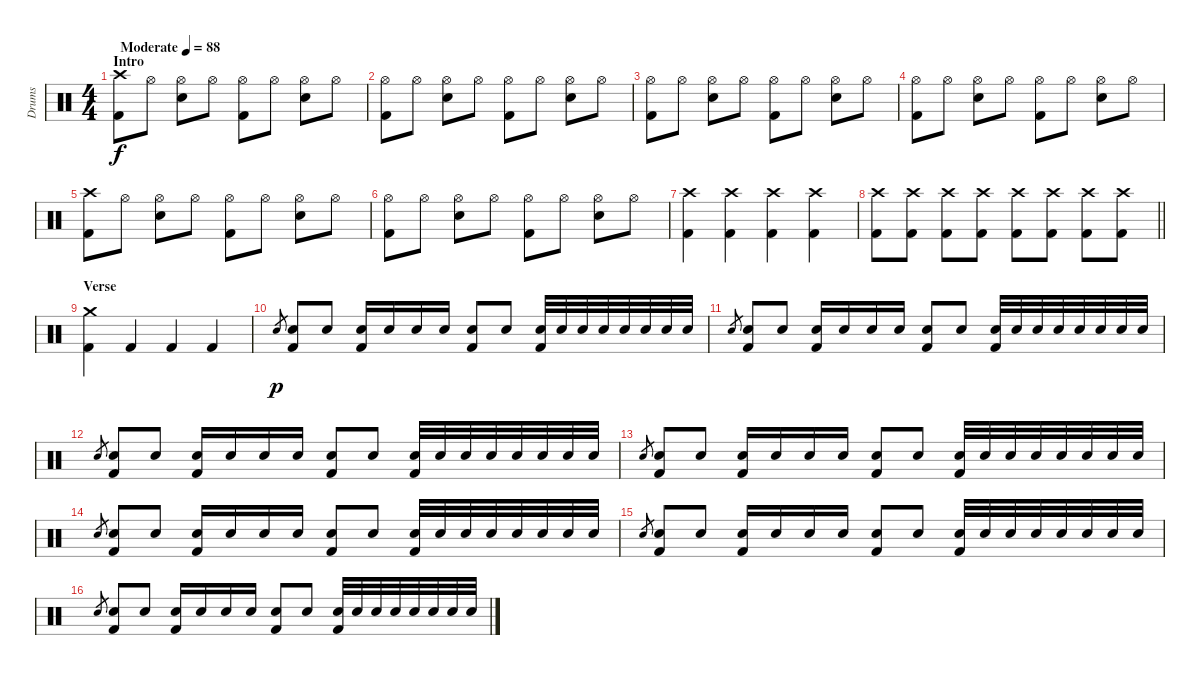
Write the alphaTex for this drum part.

\track ("Drums" "Drums") {instrument percussion}
\staff {score}
\articulation defaults
\ts (4 4)
\section ("" "Intro")
\tempo (88 "Moderate")
\clef neutral
\ks c
("Crash high (hit)" "Kick (hit) 2").8{dy f} "Hi-Hat (open)".8 ("Hi-Hat (open)" "Snare (hit) 2").8 "Hi-Hat (open)".8 ("Hi-Hat (open)" "Kick (hit) 2").8 "Hi-Hat (open)".8 ("Hi-Hat (open)" "Snare (hit) 2").8 "Hi-Hat (open)".8 |
("Hi-Hat (open)" "Kick (hit) 2").8 "Hi-Hat (open)".8 ("Hi-Hat (open)" "Snare (hit) 2").8 "Hi-Hat (open)".8 ("Hi-Hat (open)" "Kick (hit) 2").8 "Hi-Hat (open)".8 ("Hi-Hat (open)" "Snare (hit) 2").8 "Hi-Hat (open)".8 |
("Hi-Hat (open)" "Kick (hit) 2").8 "Hi-Hat (open)".8 ("Hi-Hat (open)" "Snare (hit) 2").8 "Hi-Hat (open)".8 ("Hi-Hat (open)" "Kick (hit) 2").8 "Hi-Hat (open)".8 ("Hi-Hat (open)" "Snare (hit) 2").8 "Hi-Hat (open)".8 |
("Hi-Hat (open)" "Kick (hit) 2").8 "Hi-Hat (open)".8 ("Hi-Hat (open)" "Snare (hit) 2").8 "Hi-Hat (open)".8 ("Hi-Hat (open)" "Kick (hit) 2").8 "Hi-Hat (open)".8 ("Hi-Hat (open)" "Snare (hit) 2").8 "Hi-Hat (open)".8 |
("Crash high (hit)" "Kick (hit) 2").8 "Hi-Hat (open)".8 ("Hi-Hat (open)" "Snare (hit) 2").8 "Hi-Hat (open)".8 ("Hi-Hat (open)" "Kick (hit) 2").8 "Hi-Hat (open)".8 ("Hi-Hat (open)" "Snare (hit) 2").8 "Hi-Hat (open)".8 |
("Hi-Hat (open)" "Kick (hit) 2").8 "Hi-Hat (open)".8 ("Hi-Hat (open)" "Snare (hit) 2").8 "Hi-Hat (open)".8 ("Hi-Hat (open)" "Kick (hit) 2").8 "Hi-Hat (open)".8 ("Hi-Hat (open)" "Snare (hit) 2").8 "Hi-Hat (open)".8 |
("Crash high (hit)" "Kick (hit) 2").4 ("Crash high (hit)" "Kick (hit) 2").4 ("Crash high (hit)" "Kick (hit) 2").4 ("Crash high (hit)" "Kick (hit) 2").4 |
\barLineRight lightlight
("Crash high (hit)" "Kick (hit) 2").8 ("Crash high (hit)" "Kick (hit) 2").8 ("Crash high (hit)" "Kick (hit) 2").8 ("Crash high (hit)" "Kick (hit) 2").8 ("Crash high (hit)" "Kick (hit) 2").8 ("Crash high (hit)" "Kick (hit) 2").8 ("Crash high (hit)" "Kick (hit) 2").8 ("Crash high (hit)" "Kick (hit) 2").8 |
\section ("" "Verse")
("Crash medium (hit)" "Kick (hit) 2").4 "Kick (hit) 2".4 "Kick (hit) 2".4 "Kick (hit) 2".4 |
"Snare (hit) 2".8{gr dy p} ("Snare (hit) 2" "Kick (hit) 2").8 "Snare (hit) 2".8 ("Snare (hit) 2" "Kick (hit) 2").16 "Snare (hit) 2".16 "Snare (hit) 2".16 "Snare (hit) 2".16 ("Snare (hit) 2" "Kick (hit) 2").8 "Snare (hit) 2".8 ("Snare (hit) 2" "Kick (hit) 2").32 "Snare (hit) 2".32 "Snare (hit) 2".32 "Snare (hit) 2".32 "Snare (hit) 2".32 "Snare (hit) 2".32 "Snare (hit) 2".32 "Snare (hit) 2".32 |
"Snare (hit) 2".8{gr} ("Snare (hit) 2" "Kick (hit) 2").8 "Snare (hit) 2".8 ("Snare (hit) 2" "Kick (hit) 2").16 "Snare (hit) 2".16 "Snare (hit) 2".16 "Snare (hit) 2".16 ("Snare (hit) 2" "Kick (hit) 2").8 "Snare (hit) 2".8 ("Snare (hit) 2" "Kick (hit) 2").32 "Snare (hit) 2".32 "Snare (hit) 2".32 "Snare (hit) 2".32 "Snare (hit) 2".32 "Snare (hit) 2".32 "Snare (hit) 2".32 "Snare (hit) 2".32 |
"Snare (hit) 2".8{gr} ("Snare (hit) 2" "Kick (hit) 2").8 "Snare (hit) 2".8 ("Snare (hit) 2" "Kick (hit) 2").16 "Snare (hit) 2".16 "Snare (hit) 2".16 "Snare (hit) 2".16 ("Snare (hit) 2" "Kick (hit) 2").8 "Snare (hit) 2".8 ("Snare (hit) 2" "Kick (hit) 2").32 "Snare (hit) 2".32 "Snare (hit) 2".32 "Snare (hit) 2".32 "Snare (hit) 2".32 "Snare (hit) 2".32 "Snare (hit) 2".32 "Snare (hit) 2".32 |
"Snare (hit) 2".8{gr} ("Snare (hit) 2" "Kick (hit) 2").8 "Snare (hit) 2".8 ("Snare (hit) 2" "Kick (hit) 2").16 "Snare (hit) 2".16 "Snare (hit) 2".16 "Snare (hit) 2".16 ("Snare (hit) 2" "Kick (hit) 2").8 "Snare (hit) 2".8 ("Snare (hit) 2" "Kick (hit) 2").32 "Snare (hit) 2".32 "Snare (hit) 2".32 "Snare (hit) 2".32 "Snare (hit) 2".32 "Snare (hit) 2".32 "Snare (hit) 2".32 "Snare (hit) 2".32 |
"Snare (hit) 2".8{gr} ("Snare (hit) 2" "Kick (hit) 2").8 "Snare (hit) 2".8 ("Snare (hit) 2" "Kick (hit) 2").16 "Snare (hit) 2".16 "Snare (hit) 2".16 "Snare (hit) 2".16 ("Snare (hit) 2" "Kick (hit) 2").8 "Snare (hit) 2".8 ("Snare (hit) 2" "Kick (hit) 2").32 "Snare (hit) 2".32 "Snare (hit) 2".32 "Snare (hit) 2".32 "Snare (hit) 2".32 "Snare (hit) 2".32 "Snare (hit) 2".32 "Snare (hit) 2".32 |
"Snare (hit) 2".8{gr} ("Snare (hit) 2" "Kick (hit) 2").8 "Snare (hit) 2".8 ("Snare (hit) 2" "Kick (hit) 2").16 "Snare (hit) 2".16 "Snare (hit) 2".16 "Snare (hit) 2".16 ("Snare (hit) 2" "Kick (hit) 2").8 "Snare (hit) 2".8 ("Snare (hit) 2" "Kick (hit) 2").32 "Snare (hit) 2".32 "Snare (hit) 2".32 "Snare (hit) 2".32 "Snare (hit) 2".32 "Snare (hit) 2".32 "Snare (hit) 2".32 "Snare (hit) 2".32 |
"Snare (hit) 2".8{gr} ("Snare (hit) 2" "Kick (hit) 2").8 "Snare (hit) 2".8 ("Snare (hit) 2" "Kick (hit) 2").16 "Snare (hit) 2".16 "Snare (hit) 2".16 "Snare (hit) 2".16 ("Snare (hit) 2" "Kick (hit) 2").8 "Snare (hit) 2".8 ("Snare (hit) 2" "Kick (hit) 2").32 "Snare (hit) 2".32 "Snare (hit) 2".32 "Snare (hit) 2".32 "Snare (hit) 2".32 "Snare (hit) 2".32 "Snare (hit) 2".32 "Snare (hit) 2".32
